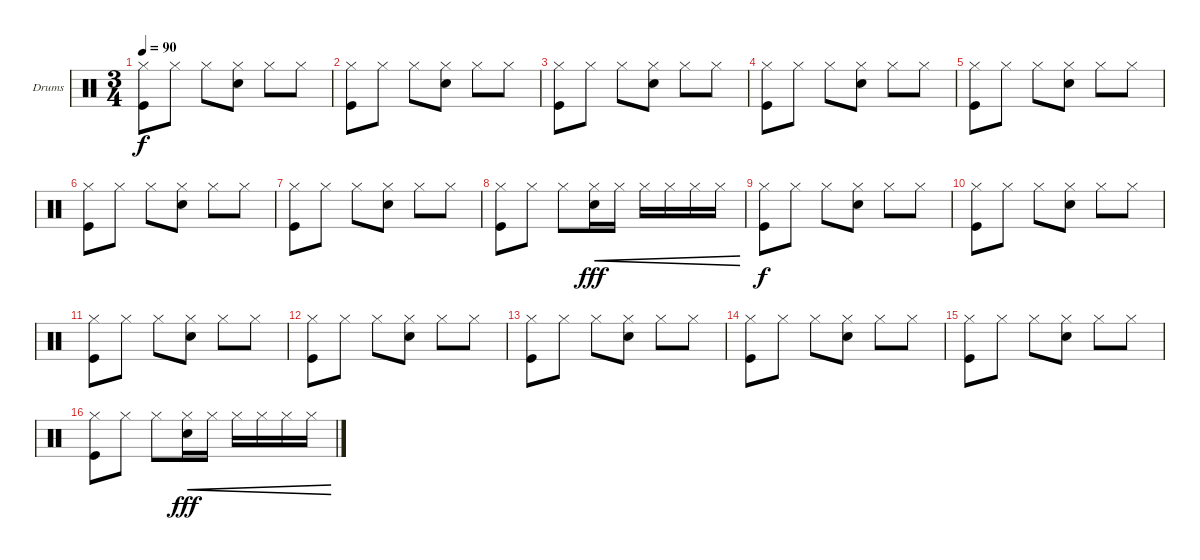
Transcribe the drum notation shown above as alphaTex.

\defaultSystemsLayout 4
\bracketExtendMode groupsimilarinstruments
\firstSystemTrackNameOrientation horizontal
\otherSystemsTrackNameOrientation horizontal
\track ("Саня" "Drums") {instrument percussion}
\staff {score}
\articulation defaults
\ts (3 4)
\tempo 90
\clef neutral
\ks c
("Kick (hit)" "Hi-Hat (closed)").8{dy f} "Hi-Hat (closed)".8 "Hi-Hat (closed)".8 ("Snare (hit) 2" "Hi-Hat (closed)").8 "Hi-Hat (closed)".8 "Hi-Hat (closed)".8 |
("Kick (hit)" "Hi-Hat (closed)").8 "Hi-Hat (closed)".8 "Hi-Hat (closed)".8 ("Snare (hit) 2" "Hi-Hat (closed)").8 "Hi-Hat (closed)".8 "Hi-Hat (closed)".8 |
("Kick (hit)" "Hi-Hat (closed)").8 "Hi-Hat (closed)".8 "Hi-Hat (closed)".8 ("Snare (hit) 2" "Hi-Hat (closed)").8 "Hi-Hat (closed)".8 "Hi-Hat (closed)".8 |
("Kick (hit)" "Hi-Hat (closed)").8 "Hi-Hat (closed)".8 "Hi-Hat (closed)".8 ("Snare (hit) 2" "Hi-Hat (closed)").8 "Hi-Hat (closed)".8 "Hi-Hat (closed)".8 |
("Kick (hit)" "Hi-Hat (closed)").8 "Hi-Hat (closed)".8 "Hi-Hat (closed)".8 ("Snare (hit) 2" "Hi-Hat (closed)").8 "Hi-Hat (closed)".8 "Hi-Hat (closed)".8 |
("Kick (hit)" "Hi-Hat (closed)").8 "Hi-Hat (closed)".8 "Hi-Hat (closed)".8 ("Snare (hit) 2" "Hi-Hat (closed)").8 "Hi-Hat (closed)".8 "Hi-Hat (closed)".8 |
("Kick (hit)" "Hi-Hat (closed)").8 "Hi-Hat (closed)".8 "Hi-Hat (closed)".8 ("Snare (hit) 2" "Hi-Hat (closed)").8 "Hi-Hat (closed)".8 "Hi-Hat (closed)".8 |
("Kick (hit)" "Hi-Hat (closed)").8 "Hi-Hat (closed)".8 "Hi-Hat (closed)".8 ("Hi-Hat (closed)" "Snare (hit) 2").16{cre dy fff} "Hi-Hat (closed)".16{cre} "Hi-Hat (closed)".16{cre} "Hi-Hat (closed)".16{cre} "Hi-Hat (closed)".16{cre} "Hi-Hat (closed)".16{cre} |
("Kick (hit)" "Hi-Hat (closed)").8{dy f} "Hi-Hat (closed)".8 "Hi-Hat (closed)".8 ("Snare (hit) 2" "Hi-Hat (closed)").8 "Hi-Hat (closed)".8 "Hi-Hat (closed)".8 |
("Kick (hit)" "Hi-Hat (closed)").8 "Hi-Hat (closed)".8 "Hi-Hat (closed)".8 ("Snare (hit) 2" "Hi-Hat (closed)").8 "Hi-Hat (closed)".8 "Hi-Hat (closed)".8 |
("Kick (hit)" "Hi-Hat (closed)").8 "Hi-Hat (closed)".8 "Hi-Hat (closed)".8 ("Snare (hit) 2" "Hi-Hat (closed)").8 "Hi-Hat (closed)".8 "Hi-Hat (closed)".8 |
("Kick (hit)" "Hi-Hat (closed)").8 "Hi-Hat (closed)".8 "Hi-Hat (closed)".8 ("Snare (hit) 2" "Hi-Hat (closed)").8 "Hi-Hat (closed)".8 "Hi-Hat (closed)".8 |
("Kick (hit)" "Hi-Hat (closed)").8 "Hi-Hat (closed)".8 "Hi-Hat (closed)".8 ("Snare (hit) 2" "Hi-Hat (closed)").8 "Hi-Hat (closed)".8 "Hi-Hat (closed)".8 |
("Kick (hit)" "Hi-Hat (closed)").8 "Hi-Hat (closed)".8 "Hi-Hat (closed)".8 ("Snare (hit) 2" "Hi-Hat (closed)").8 "Hi-Hat (closed)".8 "Hi-Hat (closed)".8 |
("Kick (hit)" "Hi-Hat (closed)").8 "Hi-Hat (closed)".8 "Hi-Hat (closed)".8 ("Snare (hit) 2" "Hi-Hat (closed)").8 "Hi-Hat (closed)".8 "Hi-Hat (closed)".8 |
("Kick (hit)" "Hi-Hat (closed)").8 "Hi-Hat (closed)".8 "Hi-Hat (closed)".8 ("Hi-Hat (closed)" "Snare (hit) 2").16{cre dy fff} "Hi-Hat (closed)".16{cre} "Hi-Hat (closed)".16{cre} "Hi-Hat (closed)".16{cre} "Hi-Hat (closed)".16{cre} "Hi-Hat (closed)".16{cre}
